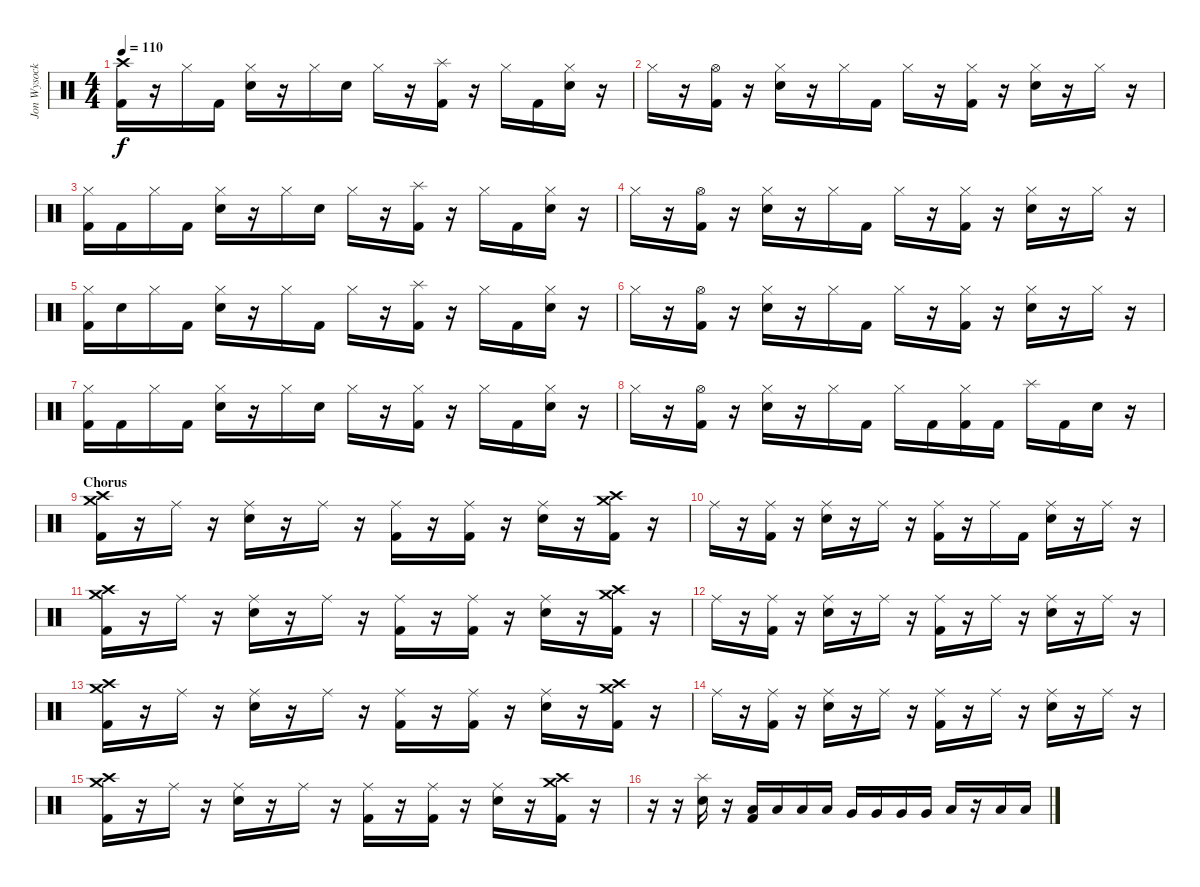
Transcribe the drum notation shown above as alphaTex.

\track ("Jon Wysocki" "Jon Wysock") {instrument percussion}
\staff {score}
\articulation defaults
\ts (4 4)
\tempo 110
\clef neutral
\ks c
("Crash high (hit)" "Kick (hit) 2").16{dy f} r.16 "Hi-Hat (closed)".16 "Kick (hit) 2".16 ("Hi-Hat (closed)" "Snare (hit) 2").16 r.16 "Hi-Hat (closed)".16 "Snare (hit) 2".16 "Hi-Hat (closed)".16 r.16 ("Splash (hit)" "Kick (hit) 2").16 r.16 "Hi-Hat (closed)".16 "Kick (hit) 2".16 ("Hi-Hat (closed)" "Snare (hit) 2").16 r.16 |
"Hi-Hat (closed)".16 r.16 ("Hi-Hat (open)" "Kick (hit) 2").16 r.16 ("Hi-Hat (closed)" "Snare (hit) 2").16 r.16 "Hi-Hat (closed)".16 "Kick (hit) 2".16 "Hi-Hat (closed)".16 r.16 ("Hi-Hat (closed)" "Kick (hit) 2").16 r.16 ("Hi-Hat (closed)" "Snare (hit) 2").16 r.16 "Hi-Hat (closed)".16 r.16 |
("Hi-Hat (closed)" "Kick (hit) 2").16 "Kick (hit) 2".16 "Hi-Hat (closed)".16 "Kick (hit) 2".16 ("Hi-Hat (closed)" "Snare (hit) 2").16 r.16 "Hi-Hat (closed)".16 "Snare (hit) 2".16 "Hi-Hat (closed)".16 r.16 ("Splash (hit)" "Kick (hit) 2").16 r.16 "Hi-Hat (closed)".16 "Kick (hit) 2".16 ("Hi-Hat (closed)" "Snare (hit) 2").16 r.16 |
"Hi-Hat (closed)".16 r.16 ("Hi-Hat (open)" "Kick (hit) 2").16 r.16 ("Hi-Hat (closed)" "Snare (hit) 2").16 r.16 "Hi-Hat (closed)".16 "Kick (hit) 2".16 "Hi-Hat (closed)".16 r.16 ("Hi-Hat (closed)" "Kick (hit) 2").16 r.16 ("Hi-Hat (closed)" "Snare (hit) 2").16 r.16 "Hi-Hat (closed)".16 r.16 |
("Hi-Hat (closed)" "Kick (hit) 2").16 "Snare (hit) 2".16 "Hi-Hat (closed)".16 "Kick (hit) 2".16 ("Hi-Hat (closed)" "Snare (hit) 2").16 r.16 "Hi-Hat (closed)".16 "Kick (hit) 2".16 "Hi-Hat (closed)".16 r.16 ("Splash (hit)" "Kick (hit) 2").16 r.16 "Hi-Hat (closed)".16 "Kick (hit) 2".16 ("Hi-Hat (closed)" "Snare (hit) 2").16 r.16 |
"Hi-Hat (closed)".16 r.16 ("Hi-Hat (open)" "Kick (hit) 2").16 r.16 ("Hi-Hat (closed)" "Snare (hit) 2").16 r.16 "Hi-Hat (closed)".16 "Kick (hit) 2".16 "Hi-Hat (closed)".16 r.16 ("Hi-Hat (closed)" "Kick (hit) 2").16 r.16 ("Hi-Hat (closed)" "Snare (hit) 2").16 r.16 "Hi-Hat (closed)".16 r.16 |
("Hi-Hat (closed)" "Kick (hit) 2").16 "Kick (hit) 2".16 "Hi-Hat (closed)".16 "Kick (hit) 2".16 ("Hi-Hat (closed)" "Snare (hit) 2").16 r.16 "Hi-Hat (closed)".16 "Snare (hit) 2".16 "Hi-Hat (closed)".16 r.16 ("Hi-Hat (closed)" "Kick (hit) 2").16 r.16 "Hi-Hat (closed)".16 "Kick (hit) 2".16 ("Hi-Hat (closed)" "Snare (hit) 2").16 r.16 |
"Hi-Hat (closed)".16 r.16 ("Hi-Hat (open)" "Kick (hit) 2").16 r.16 ("Hi-Hat (closed)" "Snare (hit) 2").16 r.16 "Hi-Hat (closed)".16 "Kick (hit) 2".16 "Hi-Hat (closed)".16 "Kick (hit) 2".16 ("Hi-Hat (closed)" "Kick (hit) 2").16 "Kick (hit) 2".16 "Splash (hit)".16 "Kick (hit) 2".16 "Snare (hit) 2".16 r.16 |
\section ("" "Chorus")
("Crash medium (hit)" "Crash high (hit)" "Kick (hit) 2").16 r.16 "Ride (middle)".16 r.16 ("Ride (middle)" "Snare (hit) 2").16 r.16 "Ride (middle)".16 r.16 ("Ride (middle)" "Kick (hit) 2").16 r.16 ("Ride (middle)" "Kick (hit) 2").16 r.16 ("Ride (middle)" "Snare (hit) 2").16 r.16 ("Crash medium (hit)" "Crash high (hit)" "Kick (hit) 2").16 r.16 |
"Ride (middle)".16 r.16 ("Ride (middle)" "Kick (hit) 2").16 r.16 ("Ride (middle)" "Snare (hit) 2").16 r.16 "Ride (middle)".16 r.16 ("Ride (middle)" "Kick (hit) 2").16 r.16 "Ride (middle)".16 "Kick (hit) 2".16 ("Ride (middle)" "Snare (hit) 2").16 r.16 "Ride (middle)".16 r.16 |
("Crash medium (hit)" "Crash high (hit)" "Kick (hit) 2").16 r.16 "Ride (middle)".16 r.16 ("Ride (middle)" "Snare (hit) 2").16 r.16 "Ride (middle)".16 r.16 ("Ride (middle)" "Kick (hit) 2").16 r.16 ("Ride (middle)" "Kick (hit) 2").16 r.16 ("Ride (middle)" "Snare (hit) 2").16 r.16 ("Crash medium (hit)" "Crash high (hit)" "Kick (hit) 2").16 r.16 |
"Ride (middle)".16 r.16 ("Ride (middle)" "Kick (hit) 2").16 r.16 ("Ride (middle)" "Snare (hit) 2").16 r.16 "Ride (middle)".16 r.16 ("Ride (middle)" "Kick (hit) 2").16 r.16 "Ride (middle)".16 r.16 ("Ride (middle)" "Snare (hit) 2").16 r.16 "Ride (middle)".16 r.16 |
("Crash medium (hit)" "Crash high (hit)" "Kick (hit) 2").16 r.16 "Ride (middle)".16 r.16 ("Ride (middle)" "Snare (hit) 2").16 r.16 "Ride (middle)".16 r.16 ("Ride (middle)" "Kick (hit) 2").16 r.16 ("Ride (middle)" "Kick (hit) 2").16 r.16 ("Ride (middle)" "Snare (hit) 2").16 r.16 ("Crash medium (hit)" "Crash high (hit)" "Kick (hit) 2").16 r.16 |
"Ride (middle)".16 r.16 ("Ride (middle)" "Kick (hit) 2").16 r.16 ("Ride (middle)" "Snare (hit) 2").16 r.16 "Ride (middle)".16 r.16 ("Ride (middle)" "Kick (hit) 2").16 r.16 "Ride (middle)".16 r.16 ("Ride (middle)" "Snare (hit) 2").16 r.16 "Ride (middle)".16 r.16 |
("Crash medium (hit)" "Crash high (hit)" "Kick (hit) 2").16 r.16 "Ride (middle)".16 r.16 ("Ride (middle)" "Snare (hit) 2").16 r.16 "Ride (middle)".16 r.16 ("Ride (middle)" "Kick (hit) 2").16 r.16 ("Ride (middle)" "Kick (hit) 2").16 r.16 ("Ride (middle)" "Snare (hit) 2").16 r.16 ("Crash medium (hit)" "Crash high (hit)" "Kick (hit) 2").16 r.16 |
r.16 r.16 ("Splash (hit)" "Snare (hit) 2").16 r.16 ("Low Tom (hit)" "Kick (hit) 2").16 "Low Tom (hit)".16 "Low Tom (hit)".16 "Low Tom (hit)".16 "Very Low Tom (hit)".16 "Very Low Tom (hit)".16 "Very Low Tom (hit)".16 "Very Low Tom (hit)".16 "Low Floor Tom (hit)".16 r.16 "Low Floor Tom (hit)".16 "Low Floor Tom (hit)".16
